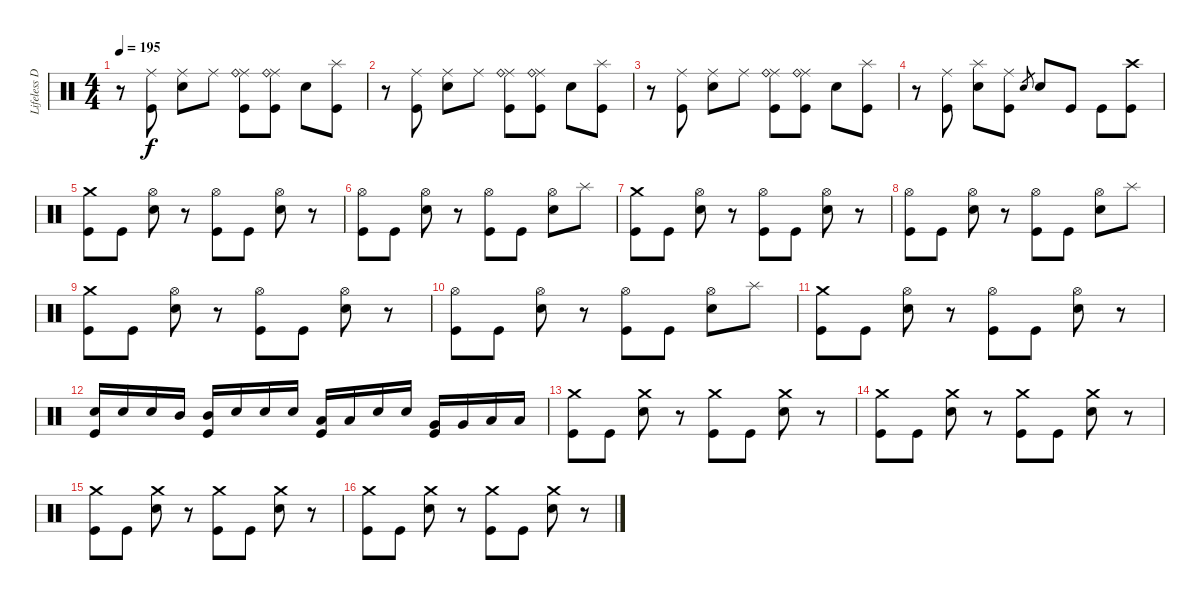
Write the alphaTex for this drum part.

\track ("Lifeless Drums" "Lifeless D") {instrument percussion}
\staff {score}
\articulation defaults
\ts (4 4)
\tempo 195
\clef neutral
\ks c
r.8{dy f} ("Ride (middle)" "Kick (hit)").8 ("Ride (middle)" "Electric Snare (hit)").8 "Ride (middle)".8 ("Ride (middle)" "Ride (bell)" "Kick (hit)").8 ("Ride (middle)" "Ride (bell)" "Kick (hit)").8 "Electric Snare (hit)".8 ("Splash (hit)" "Kick (hit)").8 |
r.8 ("Ride (middle)" "Kick (hit)").8 ("Ride (middle)" "Electric Snare (hit)").8 "Ride (middle)".8 ("Ride (middle)" "Ride (bell)" "Kick (hit)").8 ("Ride (middle)" "Ride (bell)" "Kick (hit)").8 "Electric Snare (hit)".8 ("Splash (hit)" "Kick (hit)").8 |
r.8 ("Ride (middle)" "Kick (hit)").8 ("Ride (middle)" "Electric Snare (hit)").8 "Ride (middle)".8 ("Ride (middle)" "Ride (bell)" "Kick (hit)").8 ("Ride (middle)" "Ride (bell)" "Kick (hit)").8 "Electric Snare (hit)".8 ("Splash (hit)" "Kick (hit)").8 |
r.8 ("Ride (middle)" "Kick (hit)").8 ("Splash (hit)" "Electric Snare (hit)").8 ("Ride (middle)" "Kick (hit)").8 "Electric Snare (hit)".8{gr} "Electric Snare (hit)".8 "Kick (hit)".8 "Kick (hit)".8 ("Crash high (hit)" "Kick (hit)").8 |
("Crash medium (hit)" "Kick (hit)").8 "Kick (hit)".8 ("Hi-Hat (open)" "Electric Snare (hit)").8 r.8 ("Hi-Hat (open)" "Kick (hit)").8 "Kick (hit)".8 ("Hi-Hat (open)" "Electric Snare (hit)").8 r.8 |
("Hi-Hat (open)" "Kick (hit)").8 "Kick (hit)".8 ("Hi-Hat (open)" "Electric Snare (hit)").8 r.8 ("Hi-Hat (open)" "Kick (hit)").8 "Kick (hit)".8 ("Hi-Hat (open)" "Electric Snare (hit)").8 "Splash (hit)".8 |
("Crash medium (hit)" "Kick (hit)").8 "Kick (hit)".8 ("Hi-Hat (open)" "Electric Snare (hit)").8 r.8 ("Hi-Hat (open)" "Kick (hit)").8 "Kick (hit)".8 ("Hi-Hat (open)" "Electric Snare (hit)").8 r.8 |
("Hi-Hat (open)" "Kick (hit)").8 "Kick (hit)".8 ("Hi-Hat (open)" "Electric Snare (hit)").8 r.8 ("Hi-Hat (open)" "Kick (hit)").8 "Kick (hit)".8 ("Hi-Hat (open)" "Electric Snare (hit)").8 "Splash (hit)".8 |
("Crash medium (hit)" "Kick (hit)").8 "Kick (hit)".8 ("Hi-Hat (open)" "Electric Snare (hit)").8 r.8 ("Hi-Hat (open)" "Kick (hit)").8 "Kick (hit)".8 ("Hi-Hat (open)" "Electric Snare (hit)").8 r.8 |
("Hi-Hat (open)" "Kick (hit)").8 "Kick (hit)".8 ("Hi-Hat (open)" "Electric Snare (hit)").8 r.8 ("Hi-Hat (open)" "Kick (hit)").8 "Kick (hit)".8 ("Hi-Hat (open)" "Electric Snare (hit)").8 "Splash (hit)".8 |
("Crash medium (hit)" "Kick (hit)").8 "Kick (hit)".8 ("Hi-Hat (open)" "Electric Snare (hit)").8 r.8 ("Hi-Hat (open)" "Kick (hit)").8 "Kick (hit)".8 ("Hi-Hat (open)" "Electric Snare (hit)").8 r.8 |
("Electric Snare (hit)" "Kick (hit)").16 "Electric Snare (hit)".16 "Electric Snare (hit)".16 "Mid Tom (hit)".16 ("Mid Tom (hit)" "Kick (hit)").16 "Electric Snare (hit)".16 "Electric Snare (hit)".16 "Electric Snare (hit)".16 ("Low Tom (hit)" "Kick (hit)").16 "Low Tom (hit)".16 "Electric Snare (hit)".16 "Electric Snare (hit)".16 ("Very Low Tom (hit)" "Kick (hit)").16 "Very Low Tom (hit)".16 "Low Floor Tom (hit)".16 "Low Floor Tom (hit)".16 |
("Crash medium (hit)" "Kick (hit)").8 "Kick (hit)".8 ("Crash medium (hit)" "Electric Snare (hit)").8 r.8 ("Crash medium (hit)" "Kick (hit)").8 "Kick (hit)".8 ("Crash medium (hit)" "Electric Snare (hit)").8 r.8 |
("Crash medium (hit)" "Kick (hit)").8 "Kick (hit)".8 ("Crash medium (hit)" "Electric Snare (hit)").8 r.8 ("Crash medium (hit)" "Kick (hit)").8 "Kick (hit)".8 ("Crash medium (hit)" "Electric Snare (hit)").8 r.8 |
("Crash medium (hit)" "Kick (hit)").8 "Kick (hit)".8 ("Crash medium (hit)" "Electric Snare (hit)").8 r.8 ("Crash medium (hit)" "Kick (hit)").8 "Kick (hit)".8 ("Crash medium (hit)" "Electric Snare (hit)").8 r.8 |
("Crash medium (hit)" "Kick (hit)").8 "Kick (hit)".8 ("Crash medium (hit)" "Electric Snare (hit)").8 r.8 ("Crash medium (hit)" "Kick (hit)").8 "Kick (hit)".8 ("Crash medium (hit)" "Electric Snare (hit)").8 r.8
